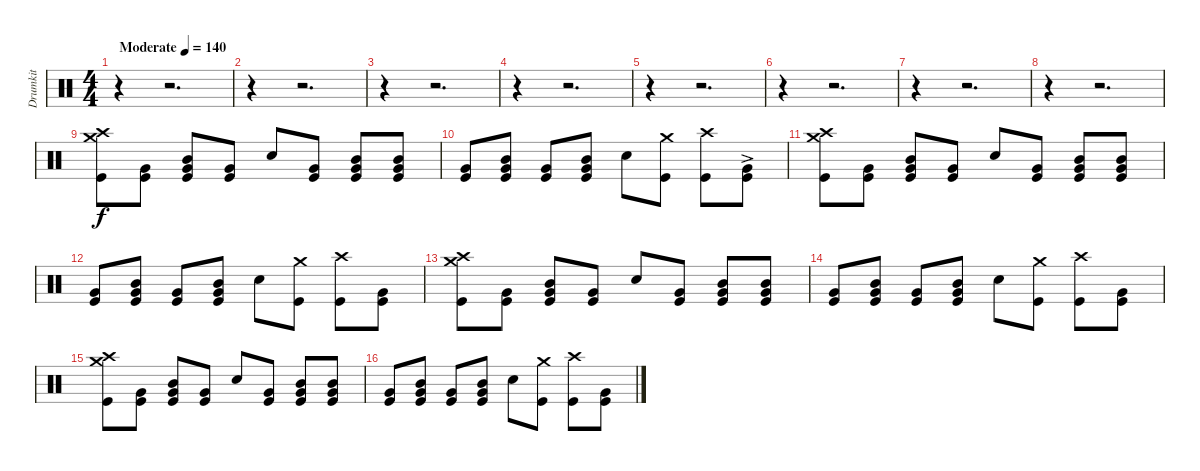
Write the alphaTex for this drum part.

\track ("Drumkit" "Drumkit") {instrument percussion}
\staff {score}
\articulation defaults
\ts (4 4)
\tempo (140 "Moderate")
\clef neutral
\ks c
r.4{dy f} r.2{d} |
r.4 r.2{d} |
r.4 r.2{d} |
r.4 r.2{d} |
r.4 r.2{d} |
r.4 r.2{d} |
r.4 r.2{d} |
r.4 r.2{d} |
("Crash high (hit)" "Crash medium (hit)" "Kick (hit)").8 ("Very Low Tom (hit)" "Kick (hit)").8 ("Mid Tom (hit)" "Very Low Tom (hit)" "Kick (hit)").8 ("Very Low Tom (hit)" "Kick (hit)").8 "Snare (hit) 2".8 ("Very Low Tom (hit)" "Kick (hit)").8 ("Mid Tom (hit)" "Very Low Tom (hit)" "Kick (hit)").8 ("Mid Tom (hit)" "Very Low Tom (hit)" "Kick (hit)").8 |
("Very Low Tom (hit)" "Kick (hit)").8 ("Mid Tom (hit)" "Very Low Tom (hit)" "Kick (hit)").8 ("Very Low Tom (hit)" "Kick (hit)").8 ("Mid Tom (hit)" "Very Low Tom (hit)" "Kick (hit)").8 "Snare (hit) 2".8 ("Crash medium (hit)" "Kick (hit)").8 ("Crash high (hit)" "Kick (hit)").8 ("Very Low Tom (hit)" "Kick (hit)"{ac}).8 |
("Crash high (hit)" "Crash medium (hit)" "Kick (hit)").8 ("Very Low Tom (hit)" "Kick (hit)").8 ("Mid Tom (hit)" "Very Low Tom (hit)" "Kick (hit)").8 ("Very Low Tom (hit)" "Kick (hit)").8 "Snare (hit) 2".8 ("Very Low Tom (hit)" "Kick (hit)").8 ("Mid Tom (hit)" "Very Low Tom (hit)" "Kick (hit)").8 ("Mid Tom (hit)" "Very Low Tom (hit)" "Kick (hit)").8 |
("Very Low Tom (hit)" "Kick (hit)").8 ("Mid Tom (hit)" "Very Low Tom (hit)" "Kick (hit)").8 ("Very Low Tom (hit)" "Kick (hit)").8 ("Mid Tom (hit)" "Very Low Tom (hit)" "Kick (hit)").8 "Snare (hit) 2".8 ("Crash medium (hit)" "Kick (hit)").8 ("Crash high (hit)" "Kick (hit)").8 ("Very Low Tom (hit)" "Kick (hit)").8 |
("Crash high (hit)" "Crash medium (hit)" "Kick (hit)").8 ("Very Low Tom (hit)" "Kick (hit)").8 ("Mid Tom (hit)" "Very Low Tom (hit)" "Kick (hit)").8 ("Very Low Tom (hit)" "Kick (hit)").8 "Snare (hit) 2".8 ("Very Low Tom (hit)" "Kick (hit)").8 ("Mid Tom (hit)" "Very Low Tom (hit)" "Kick (hit)").8 ("Mid Tom (hit)" "Very Low Tom (hit)" "Kick (hit)").8 |
("Very Low Tom (hit)" "Kick (hit)").8 ("Mid Tom (hit)" "Very Low Tom (hit)" "Kick (hit)").8 ("Very Low Tom (hit)" "Kick (hit)").8 ("Mid Tom (hit)" "Very Low Tom (hit)" "Kick (hit)").8 "Snare (hit) 2".8 ("Crash medium (hit)" "Kick (hit)").8 ("Crash high (hit)" "Kick (hit)").8 ("Very Low Tom (hit)" "Kick (hit)").8 |
("Crash high (hit)" "Crash medium (hit)" "Kick (hit)").8 ("Very Low Tom (hit)" "Kick (hit)").8 ("Mid Tom (hit)" "Very Low Tom (hit)" "Kick (hit)").8 ("Very Low Tom (hit)" "Kick (hit)").8 "Snare (hit) 2".8 ("Very Low Tom (hit)" "Kick (hit)").8 ("Mid Tom (hit)" "Very Low Tom (hit)" "Kick (hit)").8 ("Mid Tom (hit)" "Very Low Tom (hit)" "Kick (hit)").8 |
("Very Low Tom (hit)" "Kick (hit)").8 ("Mid Tom (hit)" "Very Low Tom (hit)" "Kick (hit)").8 ("Very Low Tom (hit)" "Kick (hit)").8 ("Mid Tom (hit)" "Very Low Tom (hit)" "Kick (hit)").8 "Snare (hit) 2".8 ("Crash medium (hit)" "Kick (hit)").8 ("Crash high (hit)" "Kick (hit)").8 ("Very Low Tom (hit)" "Kick (hit)").8
